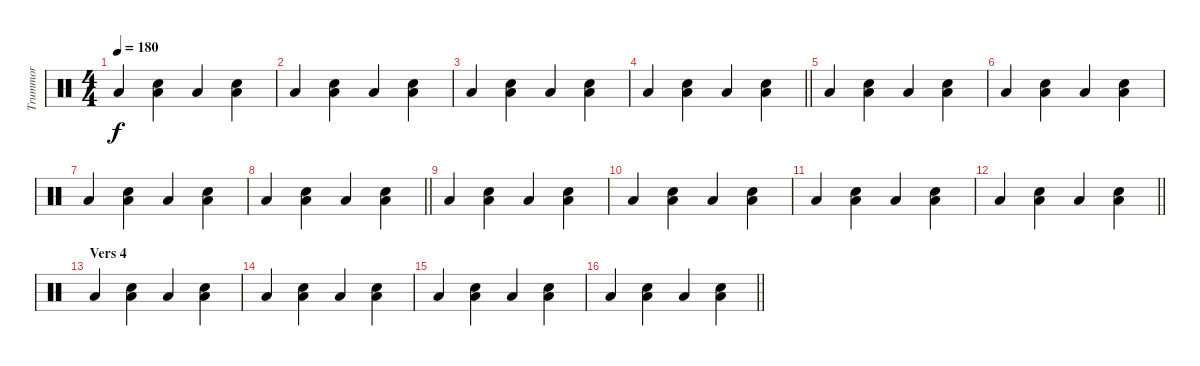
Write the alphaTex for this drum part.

\track ("Trummor" "Trummor") {instrument percussion}
\staff {score}
\articulation defaults
\ts (4 4)
\tempo 180
\clef neutral
\ks c "Low Tom (hit)".4{dy f}
("Low Tom (hit)" "Snare (hit) 2").4 "Low Tom (hit)".4 ("Low Tom (hit)" "Snare (hit) 2").4 |
"Low Tom (hit)".4 ("Low Tom (hit)" "Snare (hit) 2").4 "Low Tom (hit)".4 ("Low Tom (hit)" "Snare (hit) 2").4 |
"Low Tom (hit)".4 ("Low Tom (hit)" "Snare (hit) 2").4 "Low Tom (hit)".4 ("Low Tom (hit)" "Snare (hit) 2").4 |
\barLineRight lightlight "Low Tom (hit)".4
("Low Tom (hit)" "Snare (hit) 2").4 "Low Tom (hit)".4 ("Low Tom (hit)" "Snare (hit) 2").4 |
"Low Tom (hit)".4 ("Low Tom (hit)" "Snare (hit) 2").4 "Low Tom (hit)".4 ("Low Tom (hit)" "Snare (hit) 2").4 |
"Low Tom (hit)".4 ("Low Tom (hit)" "Snare (hit) 2").4 "Low Tom (hit)".4 ("Low Tom (hit)" "Snare (hit) 2").4 |
"Low Tom (hit)".4 ("Low Tom (hit)" "Snare (hit) 2").4 "Low Tom (hit)".4 ("Low Tom (hit)" "Snare (hit) 2").4 |
\barLineRight lightlight "Low Tom (hit)".4
("Low Tom (hit)" "Snare (hit) 2").4 "Low Tom (hit)".4 ("Low Tom (hit)" "Snare (hit) 2").4 |
"Low Tom (hit)".4 ("Low Tom (hit)" "Snare (hit) 2").4 "Low Tom (hit)".4 ("Low Tom (hit)" "Snare (hit) 2").4 |
"Low Tom (hit)".4 ("Low Tom (hit)" "Snare (hit) 2").4 "Low Tom (hit)".4 ("Low Tom (hit)" "Snare (hit) 2").4 |
"Low Tom (hit)".4 ("Low Tom (hit)" "Snare (hit) 2").4 "Low Tom (hit)".4 ("Low Tom (hit)" "Snare (hit) 2").4 |
\barLineRight lightlight "Low Tom (hit)".4
("Low Tom (hit)" "Snare (hit) 2").4 "Low Tom (hit)".4 ("Low Tom (hit)" "Snare (hit) 2").4 |
\section ("" "Vers 4")
"Low Tom (hit)".4 ("Low Tom (hit)" "Snare (hit) 2").4 "Low Tom (hit)".4 ("Low Tom (hit)" "Snare (hit) 2").4 |
"Low Tom (hit)".4 ("Low Tom (hit)" "Snare (hit) 2").4 "Low Tom (hit)".4 ("Low Tom (hit)" "Snare (hit) 2").4 |
"Low Tom (hit)".4 ("Low Tom (hit)" "Snare (hit) 2").4 "Low Tom (hit)".4 ("Low Tom (hit)" "Snare (hit) 2").4 |
\barLineRight lightlight "Low Tom (hit)".4
("Low Tom (hit)" "Snare (hit) 2").4 "Low Tom (hit)".4 ("Low Tom (hit)" "Snare (hit) 2").4
